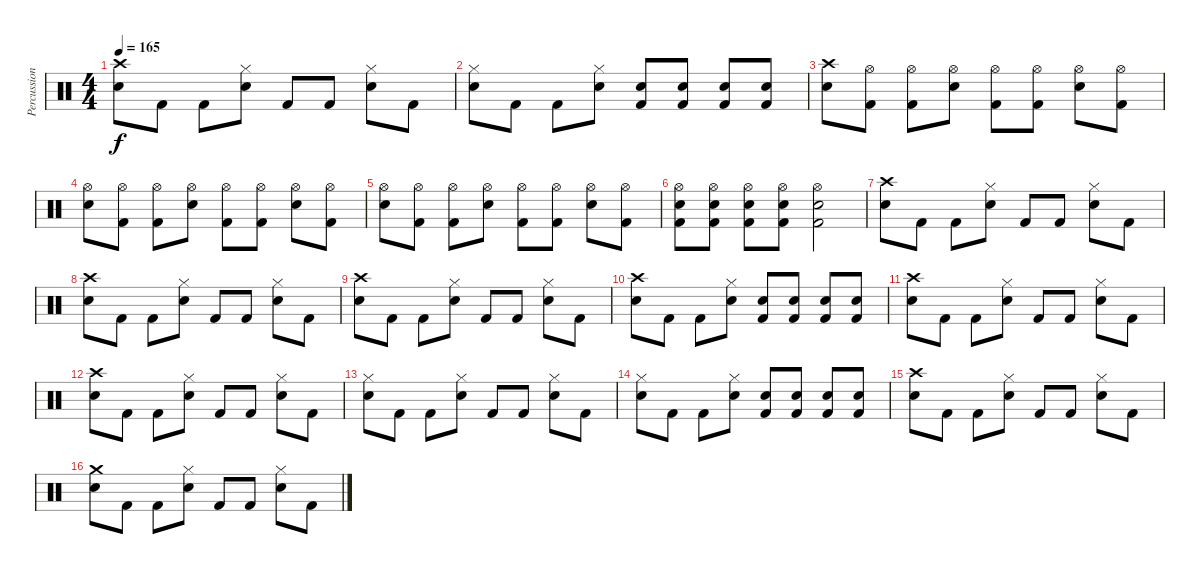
\track ("Percussion" "Percussion") {instrument percussion}
\staff {score}
\articulation defaults
\ts (4 4)
\tempo 165
\clef neutral
\ks c
("Crash high (hit)" "Electric Snare (hit)").8{dy f} "Kick (hit) 2".8 "Kick (hit) 2".8 ("Hi-Hat (closed)" "Electric Snare (hit)").8 "Kick (hit) 2".8 "Kick (hit) 2".8 ("Hi-Hat (closed)" "Electric Snare (hit)").8 "Kick (hit) 2".8 |
("Hi-Hat (closed)" "Electric Snare (hit)").8 "Kick (hit) 2".8 "Kick (hit) 2".8 ("Hi-Hat (closed)" "Electric Snare (hit)").8 ("Electric Snare (hit)" "Kick (hit) 2").8 ("Electric Snare (hit)" "Kick (hit) 2").8 ("Electric Snare (hit)" "Kick (hit) 2").8 ("Electric Snare (hit)" "Kick (hit) 2").8 |
("Crash high (hit)" "Electric Snare (hit)").8 ("Hi-Hat (open)" "Kick (hit) 2").8 ("Hi-Hat (open)" "Kick (hit) 2").8 ("Hi-Hat (open)" "Electric Snare (hit)").8 ("Hi-Hat (open)" "Kick (hit) 2").8 ("Hi-Hat (open)" "Kick (hit) 2").8 ("Hi-Hat (open)" "Electric Snare (hit)").8 ("Hi-Hat (open)" "Kick (hit) 2").8 |
("Hi-Hat (open)" "Electric Snare (hit)").8 ("Hi-Hat (open)" "Kick (hit) 2").8 ("Hi-Hat (open)" "Kick (hit) 2").8 ("Hi-Hat (open)" "Electric Snare (hit)").8 ("Hi-Hat (open)" "Kick (hit) 2").8 ("Hi-Hat (open)" "Kick (hit) 2").8 ("Hi-Hat (open)" "Electric Snare (hit)").8 ("Hi-Hat (open)" "Kick (hit) 2").8 |
("Hi-Hat (open)" "Electric Snare (hit)").8 ("Hi-Hat (open)" "Kick (hit) 2").8 ("Hi-Hat (open)" "Kick (hit) 2").8 ("Hi-Hat (open)" "Electric Snare (hit)").8 ("Hi-Hat (open)" "Kick (hit) 2").8 ("Hi-Hat (open)" "Kick (hit) 2").8 ("Hi-Hat (open)" "Electric Snare (hit)").8 ("Hi-Hat (open)" "Kick (hit) 2").8 |
("Hi-Hat (open)" "Electric Snare (hit)" "Kick (hit) 2").8 ("Hi-Hat (open)" "Electric Snare (hit)" "Kick (hit) 2").8 ("Hi-Hat (open)" "Electric Snare (hit)" "Kick (hit) 2").8 ("Hi-Hat (open)" "Electric Snare (hit)" "Kick (hit) 2").8 ("Hi-Hat (open)" "Electric Snare (hit)" "Kick (hit) 2").2 |
("Crash high (hit)" "Electric Snare (hit)").8 "Kick (hit) 2".8 "Kick (hit) 2".8 ("Hi-Hat (closed)" "Electric Snare (hit)").8 "Kick (hit) 2".8 "Kick (hit) 2".8 ("Hi-Hat (closed)" "Electric Snare (hit)").8 "Kick (hit) 2".8 |
("Crash high (hit)" "Electric Snare (hit)").8 "Kick (hit) 2".8 "Kick (hit) 2".8 ("Hi-Hat (closed)" "Electric Snare (hit)").8 "Kick (hit) 2".8 "Kick (hit) 2".8 ("Hi-Hat (closed)" "Electric Snare (hit)").8 "Kick (hit) 2".8 |
("Crash high (hit)" "Electric Snare (hit)").8 "Kick (hit) 2".8 "Kick (hit) 2".8 ("Hi-Hat (closed)" "Electric Snare (hit)").8 "Kick (hit) 2".8 "Kick (hit) 2".8 ("Hi-Hat (closed)" "Electric Snare (hit)").8 "Kick (hit) 2".8 |
("Crash high (hit)" "Electric Snare (hit)").8 "Kick (hit) 2".8 "Kick (hit) 2".8 ("Hi-Hat (closed)" "Electric Snare (hit)").8 ("Electric Snare (hit)" "Kick (hit) 2").8 ("Electric Snare (hit)" "Kick (hit) 2").8 ("Electric Snare (hit)" "Kick (hit) 2").8 ("Electric Snare (hit)" "Kick (hit) 2").8 |
("Crash high (hit)" "Electric Snare (hit)").8 "Kick (hit) 2".8 "Kick (hit) 2".8 ("Hi-Hat (closed)" "Electric Snare (hit)").8 "Kick (hit) 2".8 "Kick (hit) 2".8 ("Hi-Hat (closed)" "Electric Snare (hit)").8 "Kick (hit) 2".8 |
("Crash high (hit)" "Electric Snare (hit)").8 "Kick (hit) 2".8 "Kick (hit) 2".8 ("Hi-Hat (closed)" "Electric Snare (hit)").8 "Kick (hit) 2".8 "Kick (hit) 2".8 ("Hi-Hat (closed)" "Electric Snare (hit)").8 "Kick (hit) 2".8 |
("Hi-Hat (closed)" "Electric Snare (hit)").8 "Kick (hit) 2".8 "Kick (hit) 2".8 ("Hi-Hat (closed)" "Electric Snare (hit)").8 "Kick (hit) 2".8 "Kick (hit) 2".8 ("Hi-Hat (closed)" "Electric Snare (hit)").8 "Kick (hit) 2".8 |
("Hi-Hat (closed)" "Electric Snare (hit)").8 "Kick (hit) 2".8 "Kick (hit) 2".8 ("Hi-Hat (closed)" "Electric Snare (hit)").8 ("Electric Snare (hit)" "Kick (hit) 2").8 ("Electric Snare (hit)" "Kick (hit) 2").8 ("Electric Snare (hit)" "Kick (hit) 2").8 ("Electric Snare (hit)" "Kick (hit) 2").8 |
("Crash high (hit)" "Electric Snare (hit)").8 "Kick (hit) 2".8 "Kick (hit) 2".8 ("Hi-Hat (closed)" "Electric Snare (hit)").8 "Kick (hit) 2".8 "Kick (hit) 2".8 ("Hi-Hat (closed)" "Electric Snare (hit)").8 "Kick (hit) 2".8 |
("Crash medium (hit)" "Electric Snare (hit)").8 "Kick (hit) 2".8 "Kick (hit) 2".8 ("Hi-Hat (closed)" "Electric Snare (hit)").8 "Kick (hit) 2".8 "Kick (hit) 2".8 ("Hi-Hat (closed)" "Electric Snare (hit)").8 "Kick (hit) 2".8
